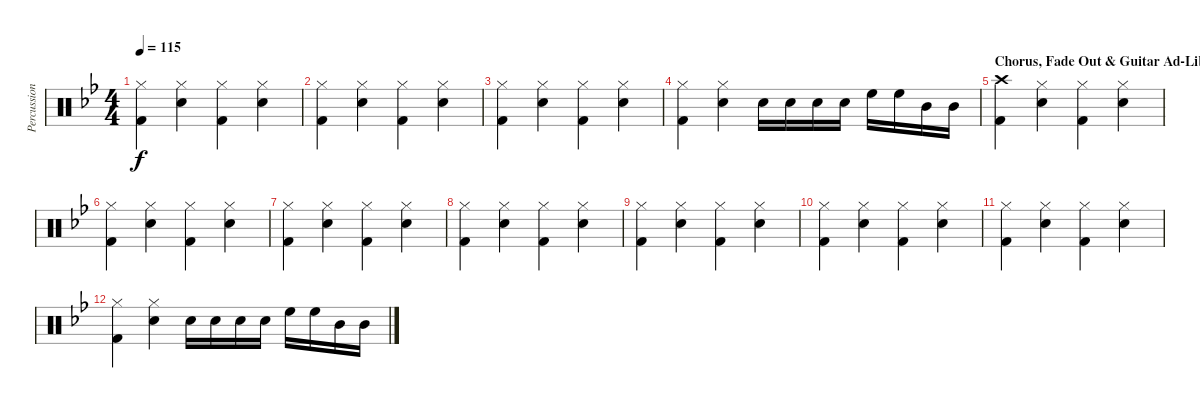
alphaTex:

\track ("Percussion" "Percussion") {instrument percussion}
\staff {score}
\articulation defaults
\ts (4 4)
\tempo 115
\clef neutral
\ks bb
("Hi-Hat (closed)" "Kick (hit) 2").4{dy f} ("Hi-Hat (closed)" "Snare (hit) 2").4 ("Hi-Hat (closed)" "Kick (hit) 2").4 ("Hi-Hat (closed)" "Snare (hit) 2").4 |
("Hi-Hat (closed)" "Kick (hit) 2").4 ("Hi-Hat (closed)" "Snare (hit) 2").4 ("Hi-Hat (closed)" "Kick (hit) 2").4 ("Hi-Hat (closed)" "Snare (hit) 2").4 |
("Hi-Hat (closed)" "Kick (hit) 2").4 ("Hi-Hat (closed)" "Snare (hit) 2").4 ("Hi-Hat (closed)" "Kick (hit) 2").4 ("Hi-Hat (closed)" "Snare (hit) 2").4 |
("Hi-Hat (closed)" "Kick (hit) 2").4 ("Hi-Hat (closed)" "Snare (hit) 2").4 "Snare (hit) 2".16 "Snare (hit) 2".16 "Snare (hit) 2".16 "Snare (hit) 2".16 "High Floor Tom (hit)".16 "High Floor Tom (hit)".16 "Mid Tom (hit)".16 "Mid Tom (hit)".16 |
\section ("" "Chorus, Fade Out & Guitar Ad-Lib")
("Crash high (hit)" "Kick (hit) 2").4 ("Hi-Hat (closed)" "Snare (hit) 2").4 ("Hi-Hat (closed)" "Kick (hit) 2").4 ("Hi-Hat (closed)" "Snare (hit) 2").4 |
("Hi-Hat (closed)" "Kick (hit) 2").4 ("Hi-Hat (closed)" "Snare (hit) 2").4 ("Hi-Hat (closed)" "Kick (hit) 2").4 ("Hi-Hat (closed)" "Snare (hit) 2").4 |
("Hi-Hat (closed)" "Kick (hit) 2").4 ("Hi-Hat (closed)" "Snare (hit) 2").4 ("Hi-Hat (closed)" "Kick (hit) 2").4 ("Hi-Hat (closed)" "Snare (hit) 2").4 |
("Hi-Hat (closed)" "Kick (hit) 2").4 ("Hi-Hat (closed)" "Snare (hit) 2").4 ("Hi-Hat (closed)" "Kick (hit) 2").4 ("Hi-Hat (closed)" "Snare (hit) 2").4 |
("Hi-Hat (closed)" "Kick (hit) 2").4 ("Hi-Hat (closed)" "Snare (hit) 2").4 ("Hi-Hat (closed)" "Kick (hit) 2").4 ("Hi-Hat (closed)" "Snare (hit) 2").4 |
("Hi-Hat (closed)" "Kick (hit) 2").4 ("Hi-Hat (closed)" "Snare (hit) 2").4 ("Hi-Hat (closed)" "Kick (hit) 2").4 ("Hi-Hat (closed)" "Snare (hit) 2").4 |
("Hi-Hat (closed)" "Kick (hit) 2").4 ("Hi-Hat (closed)" "Snare (hit) 2").4 ("Hi-Hat (closed)" "Kick (hit) 2").4 ("Hi-Hat (closed)" "Snare (hit) 2").4 |
("Hi-Hat (closed)" "Kick (hit) 2").4 ("Hi-Hat (closed)" "Snare (hit) 2").4 "Snare (hit) 2".16 "Snare (hit) 2".16 "Snare (hit) 2".16 "Snare (hit) 2".16 "High Floor Tom (hit)".16 "High Floor Tom (hit)".16 "Mid Tom (hit)".16 "Mid Tom (hit)".16
